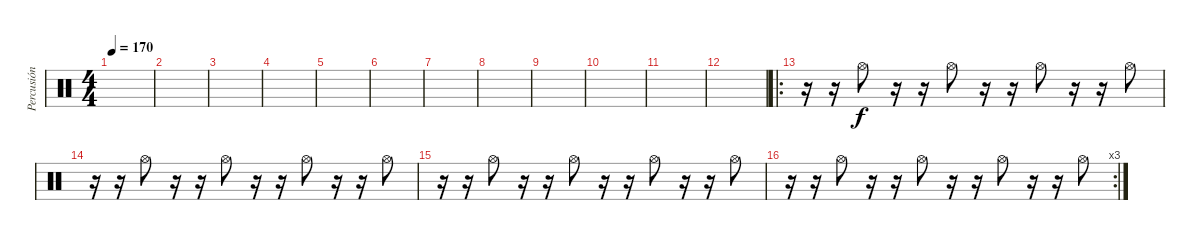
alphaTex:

\track ("Percusión" "Percusión") {instrument percussion}
\staff {score}
\articulation defaults
\ts (4 4)
\tempo 170
\clef neutral
\ks c
|
|
|
|
|
|
|
|
|
|
|
|
\ro
r.16 r.16 "Hi-Hat (open)".8 r.16 r.16 "Hi-Hat (open)".8 r.16 r.16 "Hi-Hat (open)".8 r.16 r.16 "Hi-Hat (open)".8 |
r.16 r.16 "Hi-Hat (open)".8 r.16 r.16 "Hi-Hat (open)".8 r.16 r.16 "Hi-Hat (open)".8 r.16 r.16 "Hi-Hat (open)".8 |
r.16 r.16 "Hi-Hat (open)".8 r.16 r.16 "Hi-Hat (open)".8 r.16 r.16 "Hi-Hat (open)".8 r.16 r.16 "Hi-Hat (open)".8 |
\rc 3
r.16 r.16 "Hi-Hat (open)".8 r.16 r.16 "Hi-Hat (open)".8 r.16 r.16 "Hi-Hat (open)".8 r.16 r.16 "Hi-Hat (open)".8
